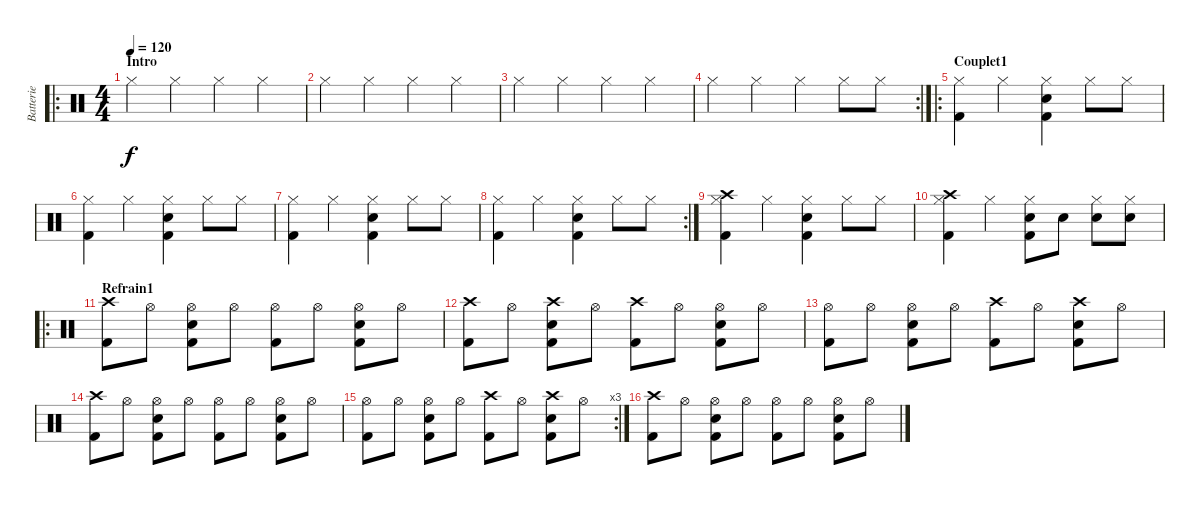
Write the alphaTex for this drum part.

\track ("Batterie" "Batterie") {instrument percussion}
\staff {score}
\articulation defaults
\ro
\ts (4 4)
\section ("" "Intro")
\tempo 120
\clef neutral
\ks c "Hi-Hat (closed)".4{dy f} "Hi-Hat (closed)".4 "Hi-Hat (closed)".4 "Hi-Hat (closed)".4
|
"Hi-Hat (closed)".4 "Hi-Hat (closed)".4 "Hi-Hat (closed)".4 "Hi-Hat (closed)".4 |
"Hi-Hat (closed)".4 "Hi-Hat (closed)".4 "Hi-Hat (closed)".4 "Hi-Hat (closed)".4 |
\rc 2 "Hi-Hat (closed)".4 "Hi-Hat (closed)".4 "Hi-Hat (closed)".4 "Hi-Hat (closed)".8 "Hi-Hat (closed)".8
|
\ro
\section ("" "Couplet1")
("Hi-Hat (closed)" "Kick (hit) 2").4 "Hi-Hat (closed)".4 ("Electric Snare (hit)" "Hi-Hat (closed)" "Kick (hit) 2").4 "Hi-Hat (closed)".8 "Hi-Hat (closed)".8 |
("Hi-Hat (closed)" "Kick (hit) 2").4 "Hi-Hat (closed)".4 ("Electric Snare (hit)" "Hi-Hat (closed)" "Kick (hit) 2").4 "Hi-Hat (closed)".8 "Hi-Hat (closed)".8 |
("Hi-Hat (closed)" "Kick (hit) 2").4 "Hi-Hat (closed)".4 ("Electric Snare (hit)" "Hi-Hat (closed)" "Kick (hit) 2").4 "Hi-Hat (closed)".8 "Hi-Hat (closed)".8 |
\rc 2
("Hi-Hat (closed)" "Kick (hit) 2").4 "Hi-Hat (closed)".4 ("Electric Snare (hit)" "Hi-Hat (closed)" "Kick (hit) 2").4 "Hi-Hat (closed)".8 "Hi-Hat (closed)".8 |
("Crash high (hit)" "Hi-Hat (closed)" "Kick (hit) 2").4 "Hi-Hat (closed)".4 ("Electric Snare (hit)" "Hi-Hat (closed)" "Kick (hit) 2").4 "Hi-Hat (closed)".8 "Hi-Hat (closed)".8 |
("Crash high (hit)" "Hi-Hat (closed)" "Kick (hit) 2").4 "Hi-Hat (closed)".4 ("Electric Snare (hit)" "Hi-Hat (closed)" "Kick (hit) 2").8 "Electric Snare (hit)".8 ("Electric Snare (hit)" "Hi-Hat (closed)").8 ("Electric Snare (hit)" "Hi-Hat (closed)").8 |
\ro
\section ("" "Refrain1")
("Crash high (hit)" "Kick (hit) 2").8 "Hi-Hat (open)".8 ("Electric Snare (hit)" "Hi-Hat (open)" "Kick (hit) 2").8 "Hi-Hat (open)".8 ("Hi-Hat (open)" "Kick (hit) 2").8 "Hi-Hat (open)".8 ("Electric Snare (hit)" "Hi-Hat (open)" "Kick (hit) 2").8 "Hi-Hat (open)".8 |
("Crash high (hit)" "Kick (hit) 2").8 "Hi-Hat (open)".8 ("Crash high (hit)" "Electric Snare (hit)" "Kick (hit) 2").8 "Hi-Hat (open)".8 ("Crash high (hit)" "Kick (hit) 2").8 "Hi-Hat (open)".8 ("Electric Snare (hit)" "Hi-Hat (open)" "Kick (hit) 2").8 "Hi-Hat (open)".8 |
("Hi-Hat (open)" "Kick (hit) 2").8 "Hi-Hat (open)".8 ("Electric Snare (hit)" "Hi-Hat (open)" "Kick (hit) 2").8 "Hi-Hat (open)".8 ("Crash high (hit)" "Kick (hit) 2").8 "Hi-Hat (open)".8 ("Crash high (hit)" "Electric Snare (hit)" "Kick (hit) 2").8 "Hi-Hat (open)".8 |
("Crash high (hit)" "Kick (hit) 2").8 "Hi-Hat (open)".8 ("Electric Snare (hit)" "Hi-Hat (open)" "Kick (hit) 2").8 "Hi-Hat (open)".8 ("Hi-Hat (open)" "Kick (hit) 2").8 "Hi-Hat (open)".8 ("Electric Snare (hit)" "Hi-Hat (open)" "Kick (hit) 2").8 "Hi-Hat (open)".8 |
\rc 3
("Hi-Hat (open)" "Kick (hit) 2").8 "Hi-Hat (open)".8 ("Electric Snare (hit)" "Hi-Hat (open)" "Kick (hit) 2").8 "Hi-Hat (open)".8 ("Crash high (hit)" "Kick (hit) 2").8 "Hi-Hat (open)".8 ("Crash high (hit)" "Electric Snare (hit)" "Kick (hit) 2").8 "Hi-Hat (open)".8 |
("Crash high (hit)" "Kick (hit) 2").8 "Hi-Hat (open)".8 ("Electric Snare (hit)" "Hi-Hat (open)" "Kick (hit) 2").8 "Hi-Hat (open)".8 ("Hi-Hat (open)" "Kick (hit) 2").8 "Hi-Hat (open)".8 ("Electric Snare (hit)" "Hi-Hat (open)" "Kick (hit) 2").8 "Hi-Hat (open)".8
